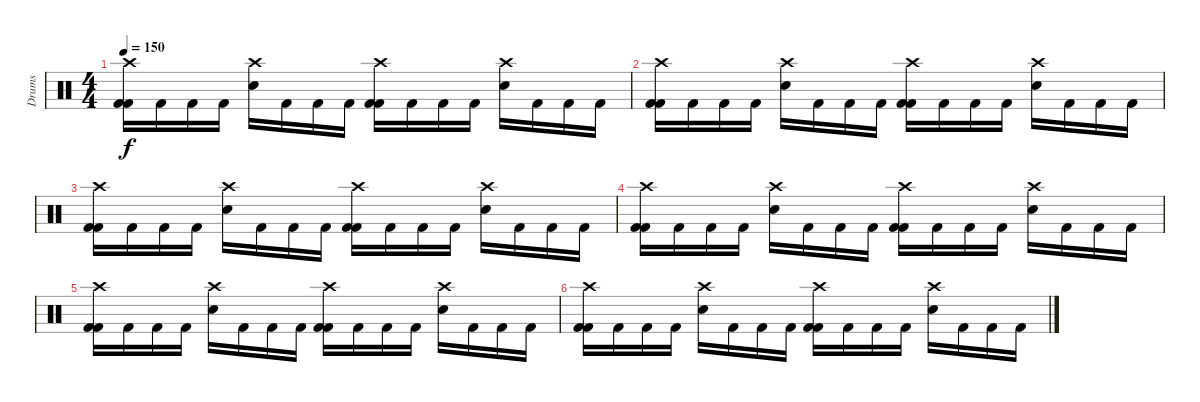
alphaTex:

\track ("Drums" "Drums") {instrument percussion}
\staff {score}
\articulation defaults
\ts (4 4)
\tempo 150
\clef neutral
\ks c
("Crash high (hit)" "Kick (hit) 2" "Kick (hit) 2").16{dy f} "Kick (hit) 2".16 "Kick (hit) 2".16 "Kick (hit) 2".16 ("Electric Snare (hit)" "Crash high (hit)").16 "Kick (hit) 2".16 "Kick (hit) 2".16 "Kick (hit) 2".16 ("Crash high (hit)" "Kick (hit) 2" "Kick (hit) 2").16 "Kick (hit) 2".16 "Kick (hit) 2".16 "Kick (hit) 2".16 ("Electric Snare (hit)" "Crash high (hit)").16 "Kick (hit) 2".16 "Kick (hit) 2".16 "Kick (hit) 2".16 |
("Crash high (hit)" "Kick (hit) 2" "Kick (hit) 2").16 "Kick (hit) 2".16 "Kick (hit) 2".16 "Kick (hit) 2".16 ("Electric Snare (hit)" "Crash high (hit)").16 "Kick (hit) 2".16 "Kick (hit) 2".16 "Kick (hit) 2".16 ("Crash high (hit)" "Kick (hit) 2" "Kick (hit) 2").16 "Kick (hit) 2".16 "Kick (hit) 2".16 "Kick (hit) 2".16 ("Electric Snare (hit)" "Crash high (hit)").16 "Kick (hit) 2".16 "Kick (hit) 2".16 "Kick (hit) 2".16 |
("Crash high (hit)" "Kick (hit) 2" "Kick (hit) 2").16 "Kick (hit) 2".16 "Kick (hit) 2".16 "Kick (hit) 2".16 ("Electric Snare (hit)" "Crash high (hit)").16 "Kick (hit) 2".16 "Kick (hit) 2".16 "Kick (hit) 2".16 ("Crash high (hit)" "Kick (hit) 2" "Kick (hit) 2").16 "Kick (hit) 2".16 "Kick (hit) 2".16 "Kick (hit) 2".16 ("Electric Snare (hit)" "Crash high (hit)").16 "Kick (hit) 2".16 "Kick (hit) 2".16 "Kick (hit) 2".16 |
("Crash high (hit)" "Kick (hit) 2" "Kick (hit) 2").16 "Kick (hit) 2".16 "Kick (hit) 2".16 "Kick (hit) 2".16 ("Electric Snare (hit)" "Crash high (hit)").16 "Kick (hit) 2".16 "Kick (hit) 2".16 "Kick (hit) 2".16 ("Crash high (hit)" "Kick (hit) 2" "Kick (hit) 2").16 "Kick (hit) 2".16 "Kick (hit) 2".16 "Kick (hit) 2".16 ("Electric Snare (hit)" "Crash high (hit)").16 "Kick (hit) 2".16 "Kick (hit) 2".16 "Kick (hit) 2".16 |
("Crash high (hit)" "Kick (hit) 2" "Kick (hit) 2").16 "Kick (hit) 2".16 "Kick (hit) 2".16 "Kick (hit) 2".16 ("Electric Snare (hit)" "Crash high (hit)").16 "Kick (hit) 2".16 "Kick (hit) 2".16 "Kick (hit) 2".16 ("Crash high (hit)" "Kick (hit) 2" "Kick (hit) 2").16 "Kick (hit) 2".16 "Kick (hit) 2".16 "Kick (hit) 2".16 ("Electric Snare (hit)" "Crash high (hit)").16 "Kick (hit) 2".16 "Kick (hit) 2".16 "Kick (hit) 2".16 |
("Crash high (hit)" "Kick (hit) 2" "Kick (hit) 2").16 "Kick (hit) 2".16 "Kick (hit) 2".16 "Kick (hit) 2".16 ("Electric Snare (hit)" "Crash high (hit)").16 "Kick (hit) 2".16 "Kick (hit) 2".16 "Kick (hit) 2".16 ("Crash high (hit)" "Kick (hit) 2" "Kick (hit) 2").16 "Kick (hit) 2".16 "Kick (hit) 2".16 "Kick (hit) 2".16 ("Electric Snare (hit)" "Crash high (hit)").16 "Kick (hit) 2".16 "Kick (hit) 2".16 "Kick (hit) 2".16
